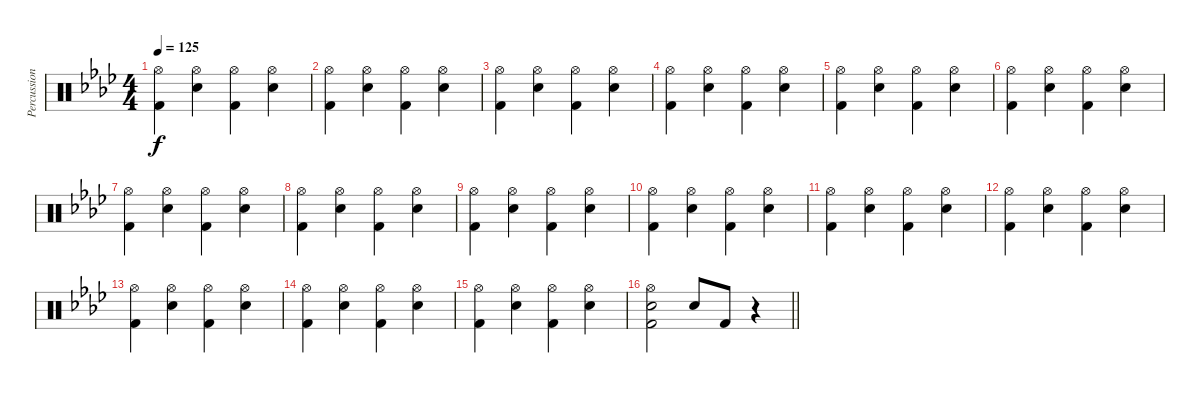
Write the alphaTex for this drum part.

\track ("Percussion" "Percussion") {instrument percussion}
\staff {score}
\articulation defaults
\ts (4 4)
\tempo 125
\clef neutral
\ks fminor
("Hi-Hat (open)" "Kick (hit) 2").4{dy f} ("Hi-Hat (open)" "Snare (hit) 2").4 ("Hi-Hat (open)" "Kick (hit) 2").4 ("Hi-Hat (open)" "Snare (hit) 2").4 |
("Hi-Hat (open)" "Kick (hit) 2").4 ("Hi-Hat (open)" "Snare (hit) 2").4 ("Hi-Hat (open)" "Kick (hit) 2").4 ("Hi-Hat (open)" "Snare (hit) 2").4 |
("Hi-Hat (open)" "Kick (hit) 2").4 ("Hi-Hat (open)" "Snare (hit) 2").4 ("Hi-Hat (open)" "Kick (hit) 2").4 ("Hi-Hat (open)" "Snare (hit) 2").4 |
("Hi-Hat (open)" "Kick (hit) 2").4 ("Hi-Hat (open)" "Snare (hit) 2").4 ("Hi-Hat (open)" "Kick (hit) 2").4 ("Hi-Hat (open)" "Snare (hit) 2").4 |
("Hi-Hat (open)" "Kick (hit) 2").4 ("Hi-Hat (open)" "Snare (hit) 2").4 ("Hi-Hat (open)" "Kick (hit) 2").4 ("Hi-Hat (open)" "Snare (hit) 2").4 |
("Hi-Hat (open)" "Kick (hit) 2").4 ("Hi-Hat (open)" "Snare (hit) 2").4 ("Hi-Hat (open)" "Kick (hit) 2").4 ("Hi-Hat (open)" "Snare (hit) 2").4 |
("Hi-Hat (open)" "Kick (hit) 2").4 ("Hi-Hat (open)" "Snare (hit) 2").4 ("Hi-Hat (open)" "Kick (hit) 2").4 ("Hi-Hat (open)" "Snare (hit) 2").4 |
("Hi-Hat (open)" "Kick (hit) 2").4 ("Hi-Hat (open)" "Snare (hit) 2").4 ("Hi-Hat (open)" "Kick (hit) 2").4 ("Hi-Hat (open)" "Snare (hit) 2").4 |
("Hi-Hat (open)" "Kick (hit) 2").4 ("Hi-Hat (open)" "Snare (hit) 2").4 ("Hi-Hat (open)" "Kick (hit) 2").4 ("Hi-Hat (open)" "Snare (hit) 2").4 |
("Hi-Hat (open)" "Kick (hit) 2").4 ("Hi-Hat (open)" "Snare (hit) 2").4 ("Hi-Hat (open)" "Kick (hit) 2").4 ("Hi-Hat (open)" "Snare (hit) 2").4 |
("Hi-Hat (open)" "Kick (hit) 2").4 ("Hi-Hat (open)" "Snare (hit) 2").4 ("Hi-Hat (open)" "Kick (hit) 2").4 ("Hi-Hat (open)" "Snare (hit) 2").4 |
("Hi-Hat (open)" "Kick (hit) 2").4 ("Hi-Hat (open)" "Snare (hit) 2").4 ("Hi-Hat (open)" "Kick (hit) 2").4 ("Hi-Hat (open)" "Snare (hit) 2").4 |
("Hi-Hat (open)" "Kick (hit) 2").4 ("Hi-Hat (open)" "Snare (hit) 2").4 ("Hi-Hat (open)" "Kick (hit) 2").4 ("Hi-Hat (open)" "Snare (hit) 2").4 |
("Hi-Hat (open)" "Kick (hit) 2").4 ("Hi-Hat (open)" "Snare (hit) 2").4 ("Hi-Hat (open)" "Kick (hit) 2").4 ("Hi-Hat (open)" "Snare (hit) 2").4 |
("Hi-Hat (open)" "Kick (hit) 2").4 ("Hi-Hat (open)" "Snare (hit) 2").4 ("Hi-Hat (open)" "Kick (hit) 2").4 ("Hi-Hat (open)" "Snare (hit) 2").4 |
\barLineRight lightlight
("Hi-Hat (open)" "Snare (hit) 2" "Kick (hit) 2").2 "Snare (hit) 2".8 "Kick (hit) 2".8 r.4
